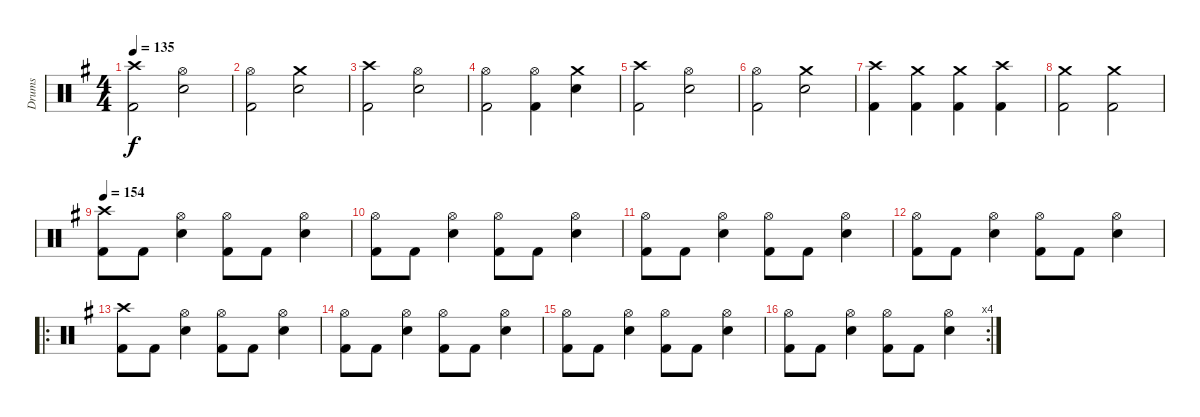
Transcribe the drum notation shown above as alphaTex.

\track ("Drums" "Drums") {mute instrument percussion}
\staff {score}
\articulation defaults
\ts (4 4)
\tempo 135
\clef neutral
\ks g
("Crash high (hit)" "Kick (hit) 2").2{dy f} ("Hi-Hat (open)" "Snare (hit) 2").2 |
("Hi-Hat (open)" "Kick (hit) 2").2 ("Crash medium (hit)" "Snare (hit) 2").2 |
("Crash high (hit)" "Kick (hit) 2").2 ("Hi-Hat (open)" "Snare (hit) 2").2 |
("Hi-Hat (open)" "Kick (hit) 2").2 ("Hi-Hat (open)" "Kick (hit) 2").4 ("Crash medium (hit)" "Snare (hit) 2").4 |
("Crash high (hit)" "Kick (hit) 2").2 ("Hi-Hat (open)" "Snare (hit) 2").2 |
("Hi-Hat (open)" "Kick (hit) 2").2 ("Crash medium (hit)" "Snare (hit) 2").2 |
("Crash high (hit)" "Kick (hit) 2").4 ("Crash medium (hit)" "Kick (hit) 2").4 ("Crash medium (hit)" "Kick (hit) 2").4 ("Crash high (hit)" "Kick (hit) 2").4 |
("Crash medium (hit)" "Kick (hit) 2").2 ("Crash medium (hit)" "Kick (hit) 2").2 |
\tempo 154
("Crash high (hit)" "Kick (hit) 2").8 "Kick (hit) 2".8 ("Hi-Hat (open)" "Snare (hit) 2").4 ("Hi-Hat (open)" "Kick (hit) 2").8 "Kick (hit) 2".8 ("Hi-Hat (open)" "Snare (hit) 2").4 |
("Hi-Hat (open)" "Kick (hit) 2").8 "Kick (hit) 2".8 ("Hi-Hat (open)" "Snare (hit) 2").4 ("Hi-Hat (open)" "Kick (hit) 2").8 "Kick (hit) 2".8 ("Hi-Hat (open)" "Snare (hit) 2").4 |
("Hi-Hat (open)" "Kick (hit) 2").8 "Kick (hit) 2".8 ("Hi-Hat (open)" "Snare (hit) 2").4 ("Hi-Hat (open)" "Kick (hit) 2").8 "Kick (hit) 2".8 ("Hi-Hat (open)" "Snare (hit) 2").4 |
("Hi-Hat (open)" "Kick (hit) 2").8 "Kick (hit) 2".8 ("Hi-Hat (open)" "Snare (hit) 2").4 ("Hi-Hat (open)" "Kick (hit) 2").8 "Kick (hit) 2".8 ("Hi-Hat (open)" "Snare (hit) 2").4 |
\ro
("Crash high (hit)" "Kick (hit) 2").8 "Kick (hit) 2".8 ("Hi-Hat (open)" "Snare (hit) 2").4 ("Hi-Hat (open)" "Kick (hit) 2").8 "Kick (hit) 2".8 ("Hi-Hat (open)" "Snare (hit) 2").4 |
("Hi-Hat (open)" "Kick (hit) 2").8 "Kick (hit) 2".8 ("Hi-Hat (open)" "Snare (hit) 2").4 ("Hi-Hat (open)" "Kick (hit) 2").8 "Kick (hit) 2".8 ("Hi-Hat (open)" "Snare (hit) 2").4 |
("Hi-Hat (open)" "Kick (hit) 2").8 "Kick (hit) 2".8 ("Hi-Hat (open)" "Snare (hit) 2").4 ("Hi-Hat (open)" "Kick (hit) 2").8 "Kick (hit) 2".8 ("Hi-Hat (open)" "Snare (hit) 2").4 |
\rc 4
("Hi-Hat (open)" "Kick (hit) 2").8 "Kick (hit) 2".8 ("Hi-Hat (open)" "Snare (hit) 2").4 ("Hi-Hat (open)" "Kick (hit) 2").8 "Kick (hit) 2".8 ("Hi-Hat (open)" "Snare (hit) 2").4
